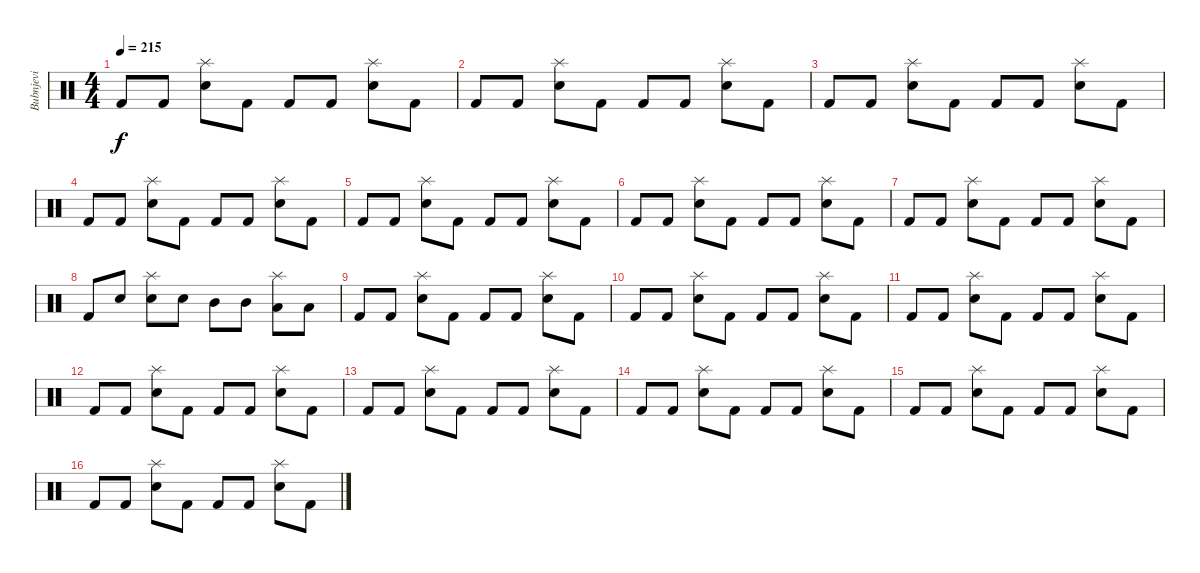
\track ("Bubnjevi" "Bubnjevi") {instrument percussion}
\staff {score}
\articulation defaults
\ts (4 4)
\tempo 215
\clef neutral
\ks c "Kick (hit) 2".8{dy f} "Kick (hit) 2".8
("Splash (hit)" "Electric Snare (hit)").8 "Kick (hit) 2".8 "Kick (hit) 2".8 "Kick (hit) 2".8 ("Splash (hit)" "Electric Snare (hit)").8 "Kick (hit) 2".8 |
"Kick (hit) 2".8 "Kick (hit) 2".8 ("Splash (hit)" "Electric Snare (hit)").8 "Kick (hit) 2".8 "Kick (hit) 2".8 "Kick (hit) 2".8 ("Splash (hit)" "Electric Snare (hit)").8 "Kick (hit) 2".8 |
"Kick (hit) 2".8 "Kick (hit) 2".8 ("Splash (hit)" "Electric Snare (hit)").8 "Kick (hit) 2".8 "Kick (hit) 2".8 "Kick (hit) 2".8 ("Splash (hit)" "Electric Snare (hit)").8 "Kick (hit) 2".8 |
"Kick (hit) 2".8 "Kick (hit) 2".8 ("Splash (hit)" "Electric Snare (hit)").8 "Kick (hit) 2".8 "Kick (hit) 2".8 "Kick (hit) 2".8 ("Splash (hit)" "Electric Snare (hit)").8 "Kick (hit) 2".8 |
"Kick (hit) 2".8 "Kick (hit) 2".8 ("Splash (hit)" "Electric Snare (hit)").8 "Kick (hit) 2".8 "Kick (hit) 2".8 "Kick (hit) 2".8 ("Splash (hit)" "Electric Snare (hit)").8 "Kick (hit) 2".8 |
"Kick (hit) 2".8 "Kick (hit) 2".8 ("Splash (hit)" "Electric Snare (hit)").8 "Kick (hit) 2".8 "Kick (hit) 2".8 "Kick (hit) 2".8 ("Splash (hit)" "Electric Snare (hit)").8 "Kick (hit) 2".8 |
"Kick (hit) 2".8 "Kick (hit) 2".8 ("Splash (hit)" "Electric Snare (hit)").8 "Kick (hit) 2".8 "Kick (hit) 2".8 "Kick (hit) 2".8 ("Splash (hit)" "Electric Snare (hit)").8 "Kick (hit) 2".8 |
"Kick (hit) 2".8 "Electric Snare (hit)".8 ("Splash (hit)" "Electric Snare (hit)").8 "Electric Snare (hit)".8 "Mid Tom (hit)".8 "Mid Tom (hit)".8 ("Splash (hit)" "Low Tom (hit)").8 "Low Tom (hit)".8 |
"Kick (hit) 2".8 "Kick (hit) 2".8 ("Splash (hit)" "Electric Snare (hit)").8 "Kick (hit) 2".8 "Kick (hit) 2".8 "Kick (hit) 2".8 ("Splash (hit)" "Electric Snare (hit)").8 "Kick (hit) 2".8 |
"Kick (hit) 2".8 "Kick (hit) 2".8 ("Splash (hit)" "Electric Snare (hit)").8 "Kick (hit) 2".8 "Kick (hit) 2".8 "Kick (hit) 2".8 ("Splash (hit)" "Electric Snare (hit)").8 "Kick (hit) 2".8 |
"Kick (hit) 2".8 "Kick (hit) 2".8 ("Splash (hit)" "Electric Snare (hit)").8 "Kick (hit) 2".8 "Kick (hit) 2".8 "Kick (hit) 2".8 ("Splash (hit)" "Electric Snare (hit)").8 "Kick (hit) 2".8 |
"Kick (hit) 2".8 "Kick (hit) 2".8 ("Splash (hit)" "Electric Snare (hit)").8 "Kick (hit) 2".8 "Kick (hit) 2".8 "Kick (hit) 2".8 ("Splash (hit)" "Electric Snare (hit)").8 "Kick (hit) 2".8 |
"Kick (hit) 2".8 "Kick (hit) 2".8 ("Splash (hit)" "Electric Snare (hit)").8 "Kick (hit) 2".8 "Kick (hit) 2".8 "Kick (hit) 2".8 ("Splash (hit)" "Electric Snare (hit)").8 "Kick (hit) 2".8 |
"Kick (hit) 2".8 "Kick (hit) 2".8 ("Splash (hit)" "Electric Snare (hit)").8 "Kick (hit) 2".8 "Kick (hit) 2".8 "Kick (hit) 2".8 ("Splash (hit)" "Electric Snare (hit)").8 "Kick (hit) 2".8 |
"Kick (hit) 2".8 "Kick (hit) 2".8 ("Splash (hit)" "Electric Snare (hit)").8 "Kick (hit) 2".8 "Kick (hit) 2".8 "Kick (hit) 2".8 ("Splash (hit)" "Electric Snare (hit)").8 "Kick (hit) 2".8 |
"Kick (hit) 2".8 "Kick (hit) 2".8 ("Splash (hit)" "Electric Snare (hit)").8 "Kick (hit) 2".8 "Kick (hit) 2".8 "Kick (hit) 2".8 ("Splash (hit)" "Electric Snare (hit)").8 "Kick (hit) 2".8
